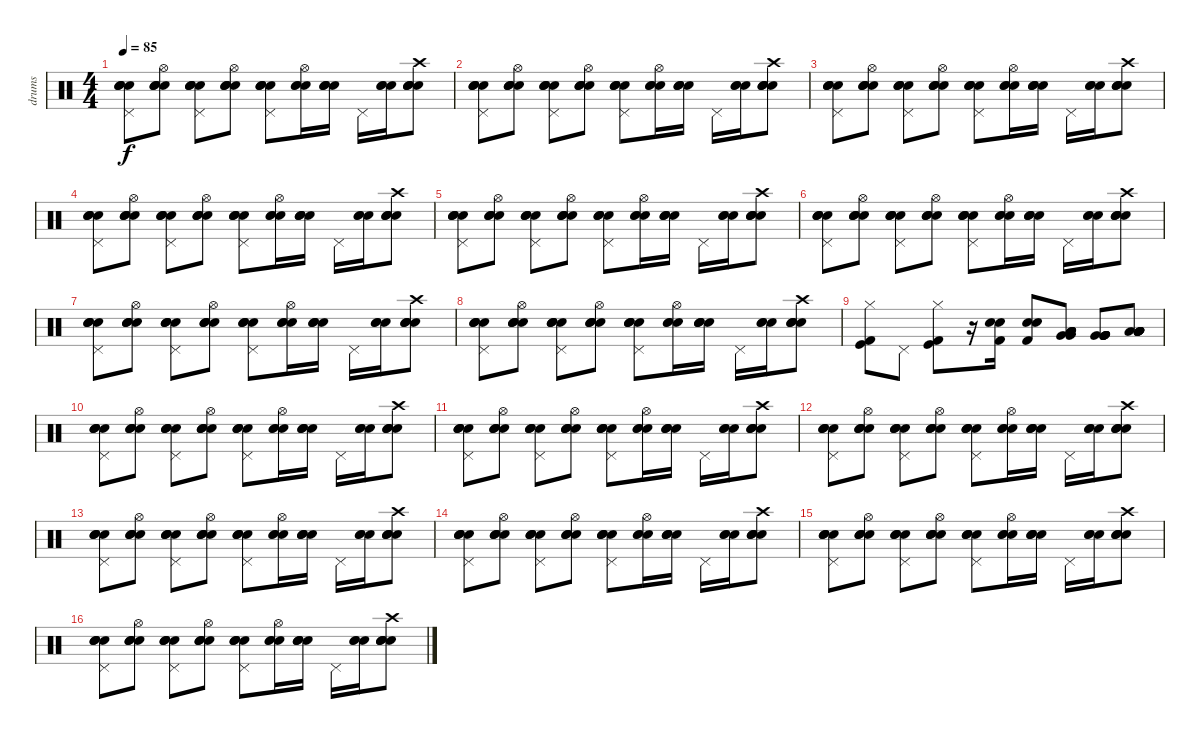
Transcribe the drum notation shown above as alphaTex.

\track ("drums" "drums") {instrument percussion}
\staff {score}
\articulation defaults
\ts (4 4)
\tempo 85
\clef neutral
\ks c
("Pedal Hi-Hat (hit)" "Snare (hit) 2" "Snare (hit) 2" "Snare (hit) 2" "Snare (hit) 2").8{dy f} ("Hi-Hat (open)" "Electric Snare (hit)" "Electric Snare (hit)" "Electric Snare (hit)" "Electric Snare (hit)").8 ("Pedal Hi-Hat (hit)" "Snare (hit) 2" "Snare (hit) 2" "Snare (hit) 2" "Snare (hit) 2").8 ("Hi-Hat (open)" "Electric Snare (hit)" "Electric Snare (hit)" "Electric Snare (hit)" "Electric Snare (hit)").8 ("Pedal Hi-Hat (hit)" "Snare (hit) 2" "Snare (hit) 2" "Snare (hit) 2" "Snare (hit) 2").8 ("Hi-Hat (open)" "Electric Snare (hit)" "Electric Snare (hit)" "Electric Snare (hit)").16 ("Electric Snare (hit)" "Electric Snare (hit)" "Electric Snare (hit)" "Electric Snare (hit)").16 "Pedal Hi-Hat (hit)".16 ("Snare (hit) 2" "Snare (hit) 2" "Snare (hit) 2").16 ("Crash high (hit)" "Snare (hit) 2" "Snare (hit) 2" "Snare (hit) 2" "Snare (hit) 2").8 |
("Pedal Hi-Hat (hit)" "Snare (hit) 2" "Snare (hit) 2" "Snare (hit) 2" "Snare (hit) 2").8 ("Hi-Hat (open)" "Electric Snare (hit)" "Electric Snare (hit)" "Electric Snare (hit)" "Electric Snare (hit)").8 ("Pedal Hi-Hat (hit)" "Snare (hit) 2" "Snare (hit) 2" "Snare (hit) 2" "Snare (hit) 2").8 ("Hi-Hat (open)" "Electric Snare (hit)" "Electric Snare (hit)" "Electric Snare (hit)" "Electric Snare (hit)").8 ("Pedal Hi-Hat (hit)" "Snare (hit) 2" "Snare (hit) 2" "Snare (hit) 2" "Snare (hit) 2").8 ("Hi-Hat (open)" "Electric Snare (hit)" "Electric Snare (hit)" "Electric Snare (hit)").16 ("Electric Snare (hit)" "Electric Snare (hit)" "Electric Snare (hit)" "Electric Snare (hit)").16 "Pedal Hi-Hat (hit)".16 ("Snare (hit) 2" "Snare (hit) 2" "Snare (hit) 2").16 ("Crash high (hit)" "Snare (hit) 2" "Snare (hit) 2" "Snare (hit) 2" "Snare (hit) 2").8 |
("Pedal Hi-Hat (hit)" "Snare (hit) 2" "Snare (hit) 2" "Snare (hit) 2" "Snare (hit) 2").8 ("Hi-Hat (open)" "Electric Snare (hit)" "Electric Snare (hit)" "Electric Snare (hit)" "Electric Snare (hit)").8 ("Pedal Hi-Hat (hit)" "Snare (hit) 2" "Snare (hit) 2" "Snare (hit) 2" "Snare (hit) 2").8 ("Hi-Hat (open)" "Electric Snare (hit)" "Electric Snare (hit)" "Electric Snare (hit)" "Electric Snare (hit)").8 ("Pedal Hi-Hat (hit)" "Snare (hit) 2" "Snare (hit) 2" "Snare (hit) 2" "Snare (hit) 2").8 ("Hi-Hat (open)" "Electric Snare (hit)" "Electric Snare (hit)" "Electric Snare (hit)").16 ("Electric Snare (hit)" "Electric Snare (hit)" "Electric Snare (hit)" "Electric Snare (hit)").16 "Pedal Hi-Hat (hit)".16 ("Snare (hit) 2" "Snare (hit) 2" "Snare (hit) 2").16 ("Crash high (hit)" "Snare (hit) 2" "Snare (hit) 2" "Snare (hit) 2" "Snare (hit) 2").8 |
("Pedal Hi-Hat (hit)" "Snare (hit) 2" "Snare (hit) 2" "Snare (hit) 2" "Snare (hit) 2").8 ("Hi-Hat (open)" "Electric Snare (hit)" "Electric Snare (hit)" "Electric Snare (hit)" "Electric Snare (hit)").8 ("Pedal Hi-Hat (hit)" "Snare (hit) 2" "Snare (hit) 2" "Snare (hit) 2" "Snare (hit) 2").8 ("Hi-Hat (open)" "Electric Snare (hit)" "Electric Snare (hit)" "Electric Snare (hit)" "Electric Snare (hit)").8 ("Pedal Hi-Hat (hit)" "Snare (hit) 2" "Snare (hit) 2" "Snare (hit) 2" "Snare (hit) 2").8 ("Hi-Hat (open)" "Electric Snare (hit)" "Electric Snare (hit)" "Electric Snare (hit)").16 ("Electric Snare (hit)" "Electric Snare (hit)" "Electric Snare (hit)" "Electric Snare (hit)").16 "Pedal Hi-Hat (hit)".16 ("Snare (hit) 2" "Snare (hit) 2" "Snare (hit) 2").16 ("Crash high (hit)" "Snare (hit) 2" "Snare (hit) 2" "Snare (hit) 2" "Snare (hit) 2").8 |
("Pedal Hi-Hat (hit)" "Snare (hit) 2" "Snare (hit) 2" "Snare (hit) 2" "Snare (hit) 2").8 ("Hi-Hat (open)" "Electric Snare (hit)" "Electric Snare (hit)" "Electric Snare (hit)" "Electric Snare (hit)").8 ("Pedal Hi-Hat (hit)" "Snare (hit) 2" "Snare (hit) 2" "Snare (hit) 2" "Snare (hit) 2").8 ("Hi-Hat (open)" "Electric Snare (hit)" "Electric Snare (hit)" "Electric Snare (hit)" "Electric Snare (hit)").8 ("Pedal Hi-Hat (hit)" "Snare (hit) 2" "Snare (hit) 2" "Snare (hit) 2" "Snare (hit) 2").8 ("Hi-Hat (open)" "Electric Snare (hit)" "Electric Snare (hit)" "Electric Snare (hit)").16 ("Electric Snare (hit)" "Electric Snare (hit)" "Electric Snare (hit)" "Electric Snare (hit)").16 "Pedal Hi-Hat (hit)".16 ("Snare (hit) 2" "Snare (hit) 2" "Snare (hit) 2").16 ("Crash high (hit)" "Snare (hit) 2" "Snare (hit) 2" "Snare (hit) 2" "Snare (hit) 2").8 |
("Pedal Hi-Hat (hit)" "Snare (hit) 2" "Snare (hit) 2" "Snare (hit) 2" "Snare (hit) 2").8 ("Hi-Hat (open)" "Electric Snare (hit)" "Electric Snare (hit)" "Electric Snare (hit)" "Electric Snare (hit)").8 ("Pedal Hi-Hat (hit)" "Snare (hit) 2" "Snare (hit) 2" "Snare (hit) 2" "Snare (hit) 2").8 ("Hi-Hat (open)" "Electric Snare (hit)" "Electric Snare (hit)" "Electric Snare (hit)" "Electric Snare (hit)").8 ("Pedal Hi-Hat (hit)" "Snare (hit) 2" "Snare (hit) 2" "Snare (hit) 2" "Snare (hit) 2").8 ("Hi-Hat (open)" "Electric Snare (hit)" "Electric Snare (hit)" "Electric Snare (hit)").16 ("Electric Snare (hit)" "Electric Snare (hit)" "Electric Snare (hit)" "Electric Snare (hit)").16 "Pedal Hi-Hat (hit)".16 ("Snare (hit) 2" "Snare (hit) 2" "Snare (hit) 2").16 ("Crash high (hit)" "Snare (hit) 2" "Snare (hit) 2" "Snare (hit) 2" "Snare (hit) 2").8 |
("Pedal Hi-Hat (hit)" "Snare (hit) 2" "Snare (hit) 2" "Snare (hit) 2" "Snare (hit) 2").8 ("Hi-Hat (open)" "Electric Snare (hit)" "Electric Snare (hit)" "Electric Snare (hit)" "Electric Snare (hit)").8 ("Pedal Hi-Hat (hit)" "Snare (hit) 2" "Snare (hit) 2" "Snare (hit) 2" "Snare (hit) 2").8 ("Hi-Hat (open)" "Electric Snare (hit)" "Electric Snare (hit)" "Electric Snare (hit)" "Electric Snare (hit)").8 ("Pedal Hi-Hat (hit)" "Snare (hit) 2" "Snare (hit) 2" "Snare (hit) 2" "Snare (hit) 2").8 ("Hi-Hat (open)" "Electric Snare (hit)" "Electric Snare (hit)" "Electric Snare (hit)").16 ("Electric Snare (hit)" "Electric Snare (hit)" "Electric Snare (hit)" "Electric Snare (hit)").16 "Pedal Hi-Hat (hit)".16 ("Snare (hit) 2" "Snare (hit) 2" "Snare (hit) 2").16 ("Crash high (hit)" "Snare (hit) 2" "Snare (hit) 2" "Snare (hit) 2" "Snare (hit) 2").8 |
("Pedal Hi-Hat (hit)" "Snare (hit) 2" "Snare (hit) 2" "Snare (hit) 2" "Snare (hit) 2").8 ("Hi-Hat (open)" "Electric Snare (hit)" "Electric Snare (hit)" "Electric Snare (hit)" "Electric Snare (hit)").8 ("Pedal Hi-Hat (hit)" "Snare (hit) 2" "Snare (hit) 2" "Snare (hit) 2" "Snare (hit) 2").8 ("Hi-Hat (open)" "Electric Snare (hit)" "Electric Snare (hit)" "Electric Snare (hit)" "Electric Snare (hit)").8 ("Pedal Hi-Hat (hit)" "Snare (hit) 2" "Snare (hit) 2" "Snare (hit) 2" "Snare (hit) 2").8 ("Hi-Hat (open)" "Electric Snare (hit)" "Electric Snare (hit)" "Electric Snare (hit)").16 ("Electric Snare (hit)" "Electric Snare (hit)" "Electric Snare (hit)" "Electric Snare (hit)").16 "Pedal Hi-Hat (hit)".16 ("Snare (hit) 2" "Snare (hit) 2" "Snare (hit) 2").16 ("Crash high (hit)" "Snare (hit) 2" "Snare (hit) 2" "Snare (hit) 2" "Snare (hit) 2").8 |
("Hi-Hat (closed)" "Kick (hit) 2" "Kick (hit)").8 "Pedal Hi-Hat (hit)".8 ("Hi-Hat (closed)" "Kick (hit) 2" "Kick (hit)").8 r.16 ("Kick (hit) 2" "Electric Snare (hit)" "Snare (hit) 2").16 ("Kick (hit) 2" "Electric Snare (hit)" "Snare (hit) 2").8 ("Low Floor Tom (hit)" "Very Low Tom (hit)" "Low Floor Tom (hit)" "Low Floor Tom (hit)" "Low Floor Tom (hit)" "Very Low Tom (hit)").8 ("Very Low Tom (hit)" "Very Low Tom (hit)" "Very Low Tom (hit)" "Very Low Tom (hit)" "Very Low Tom (hit)" "Very Low Tom (hit)").8 ("Low Tom (hit)" "Low Tom (hit)" "Low Tom (hit)" "Low Tom (hit)" "Low Tom (hit)" "Low Tom (hit)").8 |
("Pedal Hi-Hat (hit)" "Snare (hit) 2" "Snare (hit) 2" "Snare (hit) 2" "Snare (hit) 2").8 ("Hi-Hat (open)" "Electric Snare (hit)" "Electric Snare (hit)" "Electric Snare (hit)" "Electric Snare (hit)").8 ("Pedal Hi-Hat (hit)" "Snare (hit) 2" "Snare (hit) 2" "Snare (hit) 2" "Snare (hit) 2").8 ("Hi-Hat (open)" "Electric Snare (hit)" "Electric Snare (hit)" "Electric Snare (hit)" "Electric Snare (hit)").8 ("Pedal Hi-Hat (hit)" "Snare (hit) 2" "Snare (hit) 2" "Snare (hit) 2" "Snare (hit) 2").8 ("Hi-Hat (open)" "Electric Snare (hit)" "Electric Snare (hit)" "Electric Snare (hit)").16 ("Electric Snare (hit)" "Electric Snare (hit)" "Electric Snare (hit)" "Electric Snare (hit)").16 "Pedal Hi-Hat (hit)".16 ("Snare (hit) 2" "Snare (hit) 2" "Snare (hit) 2").16 ("Crash high (hit)" "Snare (hit) 2" "Snare (hit) 2" "Snare (hit) 2" "Snare (hit) 2").8 |
("Pedal Hi-Hat (hit)" "Snare (hit) 2" "Snare (hit) 2" "Snare (hit) 2" "Snare (hit) 2").8 ("Hi-Hat (open)" "Electric Snare (hit)" "Electric Snare (hit)" "Electric Snare (hit)" "Electric Snare (hit)").8 ("Pedal Hi-Hat (hit)" "Snare (hit) 2" "Snare (hit) 2" "Snare (hit) 2" "Snare (hit) 2").8 ("Hi-Hat (open)" "Electric Snare (hit)" "Electric Snare (hit)" "Electric Snare (hit)" "Electric Snare (hit)").8 ("Pedal Hi-Hat (hit)" "Snare (hit) 2" "Snare (hit) 2" "Snare (hit) 2" "Snare (hit) 2").8 ("Hi-Hat (open)" "Electric Snare (hit)" "Electric Snare (hit)" "Electric Snare (hit)").16 ("Electric Snare (hit)" "Electric Snare (hit)" "Electric Snare (hit)" "Electric Snare (hit)").16 "Pedal Hi-Hat (hit)".16 ("Snare (hit) 2" "Snare (hit) 2" "Snare (hit) 2").16 ("Crash high (hit)" "Snare (hit) 2" "Snare (hit) 2" "Snare (hit) 2" "Snare (hit) 2").8 |
("Pedal Hi-Hat (hit)" "Snare (hit) 2" "Snare (hit) 2" "Snare (hit) 2" "Snare (hit) 2").8 ("Hi-Hat (open)" "Electric Snare (hit)" "Electric Snare (hit)" "Electric Snare (hit)" "Electric Snare (hit)").8 ("Pedal Hi-Hat (hit)" "Snare (hit) 2" "Snare (hit) 2" "Snare (hit) 2" "Snare (hit) 2").8 ("Hi-Hat (open)" "Electric Snare (hit)" "Electric Snare (hit)" "Electric Snare (hit)" "Electric Snare (hit)").8 ("Pedal Hi-Hat (hit)" "Snare (hit) 2" "Snare (hit) 2" "Snare (hit) 2" "Snare (hit) 2").8 ("Hi-Hat (open)" "Electric Snare (hit)" "Electric Snare (hit)" "Electric Snare (hit)").16 ("Electric Snare (hit)" "Electric Snare (hit)" "Electric Snare (hit)" "Electric Snare (hit)").16 "Pedal Hi-Hat (hit)".16 ("Snare (hit) 2" "Snare (hit) 2" "Snare (hit) 2").16 ("Crash high (hit)" "Snare (hit) 2" "Snare (hit) 2" "Snare (hit) 2" "Snare (hit) 2").8 |
("Pedal Hi-Hat (hit)" "Snare (hit) 2" "Snare (hit) 2" "Snare (hit) 2" "Snare (hit) 2").8 ("Hi-Hat (open)" "Electric Snare (hit)" "Electric Snare (hit)" "Electric Snare (hit)" "Electric Snare (hit)").8 ("Pedal Hi-Hat (hit)" "Snare (hit) 2" "Snare (hit) 2" "Snare (hit) 2" "Snare (hit) 2").8 ("Hi-Hat (open)" "Electric Snare (hit)" "Electric Snare (hit)" "Electric Snare (hit)" "Electric Snare (hit)").8 ("Pedal Hi-Hat (hit)" "Snare (hit) 2" "Snare (hit) 2" "Snare (hit) 2" "Snare (hit) 2").8 ("Hi-Hat (open)" "Electric Snare (hit)" "Electric Snare (hit)" "Electric Snare (hit)").16 ("Electric Snare (hit)" "Electric Snare (hit)" "Electric Snare (hit)" "Electric Snare (hit)").16 "Pedal Hi-Hat (hit)".16 ("Snare (hit) 2" "Snare (hit) 2" "Snare (hit) 2").16 ("Crash high (hit)" "Snare (hit) 2" "Snare (hit) 2" "Snare (hit) 2" "Snare (hit) 2").8 |
("Pedal Hi-Hat (hit)" "Snare (hit) 2" "Snare (hit) 2" "Snare (hit) 2" "Snare (hit) 2").8 ("Hi-Hat (open)" "Electric Snare (hit)" "Electric Snare (hit)" "Electric Snare (hit)" "Electric Snare (hit)").8 ("Pedal Hi-Hat (hit)" "Snare (hit) 2" "Snare (hit) 2" "Snare (hit) 2" "Snare (hit) 2").8 ("Hi-Hat (open)" "Electric Snare (hit)" "Electric Snare (hit)" "Electric Snare (hit)" "Electric Snare (hit)").8 ("Pedal Hi-Hat (hit)" "Snare (hit) 2" "Snare (hit) 2" "Snare (hit) 2" "Snare (hit) 2").8 ("Hi-Hat (open)" "Electric Snare (hit)" "Electric Snare (hit)" "Electric Snare (hit)").16 ("Electric Snare (hit)" "Electric Snare (hit)" "Electric Snare (hit)" "Electric Snare (hit)").16 "Pedal Hi-Hat (hit)".16 ("Snare (hit) 2" "Snare (hit) 2" "Snare (hit) 2").16 ("Crash high (hit)" "Snare (hit) 2" "Snare (hit) 2" "Snare (hit) 2" "Snare (hit) 2").8 |
("Pedal Hi-Hat (hit)" "Snare (hit) 2" "Snare (hit) 2" "Snare (hit) 2" "Snare (hit) 2").8 ("Hi-Hat (open)" "Electric Snare (hit)" "Electric Snare (hit)" "Electric Snare (hit)" "Electric Snare (hit)").8 ("Pedal Hi-Hat (hit)" "Snare (hit) 2" "Snare (hit) 2" "Snare (hit) 2" "Snare (hit) 2").8 ("Hi-Hat (open)" "Electric Snare (hit)" "Electric Snare (hit)" "Electric Snare (hit)" "Electric Snare (hit)").8 ("Pedal Hi-Hat (hit)" "Snare (hit) 2" "Snare (hit) 2" "Snare (hit) 2" "Snare (hit) 2").8 ("Hi-Hat (open)" "Electric Snare (hit)" "Electric Snare (hit)" "Electric Snare (hit)").16 ("Electric Snare (hit)" "Electric Snare (hit)" "Electric Snare (hit)" "Electric Snare (hit)").16 "Pedal Hi-Hat (hit)".16 ("Snare (hit) 2" "Snare (hit) 2" "Snare (hit) 2").16 ("Crash high (hit)" "Snare (hit) 2" "Snare (hit) 2" "Snare (hit) 2" "Snare (hit) 2").8 |
("Pedal Hi-Hat (hit)" "Snare (hit) 2" "Snare (hit) 2" "Snare (hit) 2" "Snare (hit) 2").8 ("Hi-Hat (open)" "Electric Snare (hit)" "Electric Snare (hit)" "Electric Snare (hit)" "Electric Snare (hit)").8 ("Pedal Hi-Hat (hit)" "Snare (hit) 2" "Snare (hit) 2" "Snare (hit) 2" "Snare (hit) 2").8 ("Hi-Hat (open)" "Electric Snare (hit)" "Electric Snare (hit)" "Electric Snare (hit)" "Electric Snare (hit)").8 ("Pedal Hi-Hat (hit)" "Snare (hit) 2" "Snare (hit) 2" "Snare (hit) 2" "Snare (hit) 2").8 ("Hi-Hat (open)" "Electric Snare (hit)" "Electric Snare (hit)" "Electric Snare (hit)").16 ("Electric Snare (hit)" "Electric Snare (hit)" "Electric Snare (hit)" "Electric Snare (hit)").16 "Pedal Hi-Hat (hit)".16 ("Snare (hit) 2" "Snare (hit) 2" "Snare (hit) 2").16 ("Crash high (hit)" "Snare (hit) 2" "Snare (hit) 2" "Snare (hit) 2" "Snare (hit) 2").8
